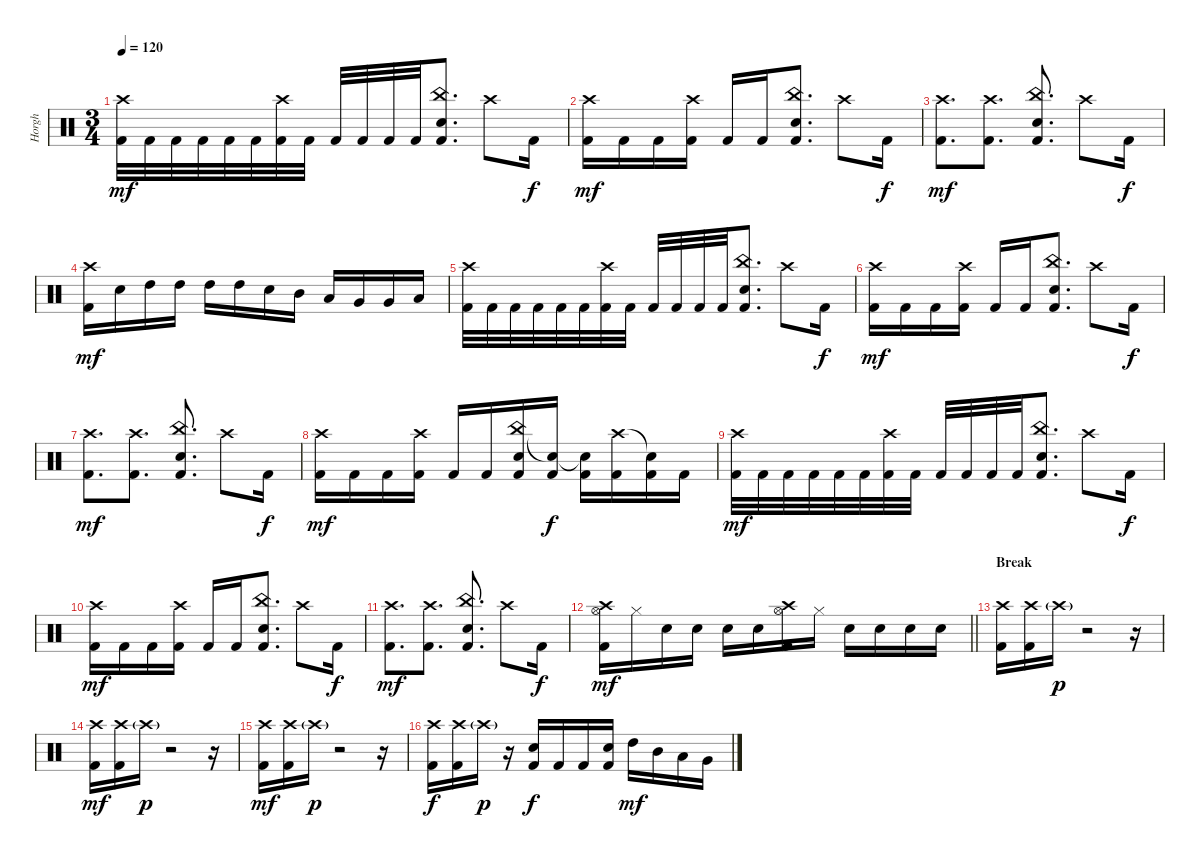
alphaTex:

\track ("Horgh" "Horgh") {instrument percussion}
\staff {score}
\articulation defaults
\ts (3 4)
\tempo 120
\clef neutral
\ks c
("Crash high (hit)" "Kick (hit) 2").32{dy mf} "Kick (hit) 2".32 "Kick (hit) 2".32 "Kick (hit) 2".32 "Kick (hit) 2".32 "Kick (hit) 2".32 ("Crash high (hit)" "Kick (hit) 2").32 "Kick (hit) 2".32 "Kick (hit) 2".32 "Kick (hit) 2".32 "Kick (hit) 2".32 "Kick (hit) 2".32 ("China (hit)" "Snare (hit) 2" "Kick (hit) 2").8{d} "Crash high (hit)".8 "Kick (hit) 2".16{dy f} |
("Crash high (hit)" "Kick (hit) 2").16{dy mf} "Kick (hit) 2".16 "Kick (hit) 2".16 ("Crash high (hit)" "Kick (hit) 2").16 "Kick (hit) 2".16 "Kick (hit) 2".16 ("China (hit)" "Snare (hit) 2" "Kick (hit) 2").8{d} "Crash high (hit)".8 "Kick (hit) 2".16{dy f} |
("Crash high (hit)" "Kick (hit) 2").8{d dy mf} ("Crash high (hit)" "Kick (hit) 2").8{d} ("China (hit)" "Snare (hit) 2" "Kick (hit) 2").8{d} "Crash high (hit)".8 "Kick (hit) 2".16{dy f} |
("Crash high (hit)" "Kick (hit) 2").16{dy mf} "Snare (hit) 2".16 "High Tom (hit)".16 "High Tom (hit)".16 "High Tom (hit)".16 "High Tom (hit)".16 "Snare (hit) 2".16 "Mid Tom (hit)".16 "Low Tom (hit)".16 "Very Low Tom (hit)".16 "Very Low Tom (hit)".16 "Low Floor Tom (hit)".16 |
("Crash high (hit)" "Kick (hit) 2").32 "Kick (hit) 2".32 "Kick (hit) 2".32 "Kick (hit) 2".32 "Kick (hit) 2".32 "Kick (hit) 2".32 ("Crash high (hit)" "Kick (hit) 2").32 "Kick (hit) 2".32 "Kick (hit) 2".32 "Kick (hit) 2".32 "Kick (hit) 2".32 "Kick (hit) 2".32 ("China (hit)" "Snare (hit) 2" "Kick (hit) 2").8{d} "Crash high (hit)".8 "Kick (hit) 2".16{dy f} |
("Crash high (hit)" "Kick (hit) 2").16{dy mf} "Kick (hit) 2".16 "Kick (hit) 2".16 ("Crash high (hit)" "Kick (hit) 2").16 "Kick (hit) 2".16 "Kick (hit) 2".16 ("China (hit)" "Snare (hit) 2" "Kick (hit) 2").8{d} "Crash high (hit)".8 "Kick (hit) 2".16{dy f} |
("Crash high (hit)" "Kick (hit) 2").8{d dy mf} ("Crash high (hit)" "Kick (hit) 2").8{d} ("China (hit)" "Snare (hit) 2" "Kick (hit) 2").8{d} "Crash high (hit)".8 "Kick (hit) 2".16{dy f} |
("Crash high (hit)" "Kick (hit) 2").16{dy mf} "Kick (hit) 2".16 "Kick (hit) 2".16 ("Crash high (hit)" "Kick (hit) 2").16 "Kick (hit) 2".16 "Kick (hit) 2".16 ("China (hit)" "Snare (hit) 2" "Kick (hit) 2").16 ("Snare (hit)"{t} "Kick (hit) 2").16{dy f} ("Snare (hit)"{t} "Kick (hit) 2").16 ("Crash high (hit)" "Kick (hit) 2").16 ("Snare (hit)"{t} "Kick (hit) 2").16 "Kick (hit) 2".16 |
("Crash high (hit)" "Kick (hit) 2").32{dy mf} "Kick (hit) 2".32 "Kick (hit) 2".32 "Kick (hit) 2".32 "Kick (hit) 2".32 "Kick (hit) 2".32 ("Crash high (hit)" "Kick (hit) 2").32 "Kick (hit) 2".32 "Kick (hit) 2".32 "Kick (hit) 2".32 "Kick (hit) 2".32 "Kick (hit) 2".32 ("China (hit)" "Snare (hit) 2" "Kick (hit) 2").8{d} "Crash high (hit)".8 "Kick (hit) 2".16{dy f} |
("Crash high (hit)" "Kick (hit) 2").16{dy mf} "Kick (hit) 2".16 "Kick (hit) 2".16 ("Crash high (hit)" "Kick (hit) 2").16 "Kick (hit) 2".16 "Kick (hit) 2".16 ("China (hit)" "Snare (hit) 2" "Kick (hit) 2").8{d} "Crash high (hit)".8 "Kick (hit) 2".16{dy f} |
("Crash high (hit)" "Kick (hit) 2").8{d dy mf} ("Crash high (hit)" "Kick (hit) 2").8{d} ("China (hit)" "Snare (hit) 2" "Kick (hit) 2").8{d} "Crash high (hit)".8 "Kick (hit) 2".16{dy f} |
\barLineRight lightlight
("Crash high (hit)" "Hi-Hat (open)" "Kick (hit) 2").16{dy mf} "Hi-Hat (closed)".16 "Snare (hit) 2".16 "Snare (hit) 2".16 "Snare (hit) 2".16 "Snare (hit) 2".16 ("Crash high (hit)" "Hi-Hat (open)" "Kick (hit) 2").16 "Hi-Hat (closed)".16 "Snare (hit) 2".16 "Snare (hit) 2".16 "Snare (hit) 2".16 "Snare (hit) 2".16 |
\section ("" "Break")
("Crash high (hit)" "Kick (hit) 2").16 ("Crash high (hit)" "Kick (hit) 2").16 "Crash high (hit)"{g}.16{dy p} r.2 r.16 |
("Crash high (hit)" "Kick (hit) 2").16{dy mf} ("Crash high (hit)" "Kick (hit) 2").16 "Crash high (hit)"{g}.16{dy p} r.2 r.16 |
("Crash high (hit)" "Kick (hit) 2").16{dy mf} ("Crash high (hit)" "Kick (hit) 2").16 "Crash high (hit)"{g}.16{dy p} r.2 r.16 |
("Crash high (hit)" "Kick (hit) 2").16{dy f} ("Crash high (hit)" "Kick (hit) 2").16 "Crash high (hit)"{g}.16{dy p} r.16 ("Snare (hit) 2" "Kick (hit) 2").16{dy f} "Kick (hit) 2".16 "Kick (hit) 2".16 ("Snare (hit) 2" "Kick (hit) 2").16 "High Tom (hit)".16{dy mf} "Mid Tom (hit)".16 "Low Tom (hit)".16 "Very Low Tom (hit)".16
